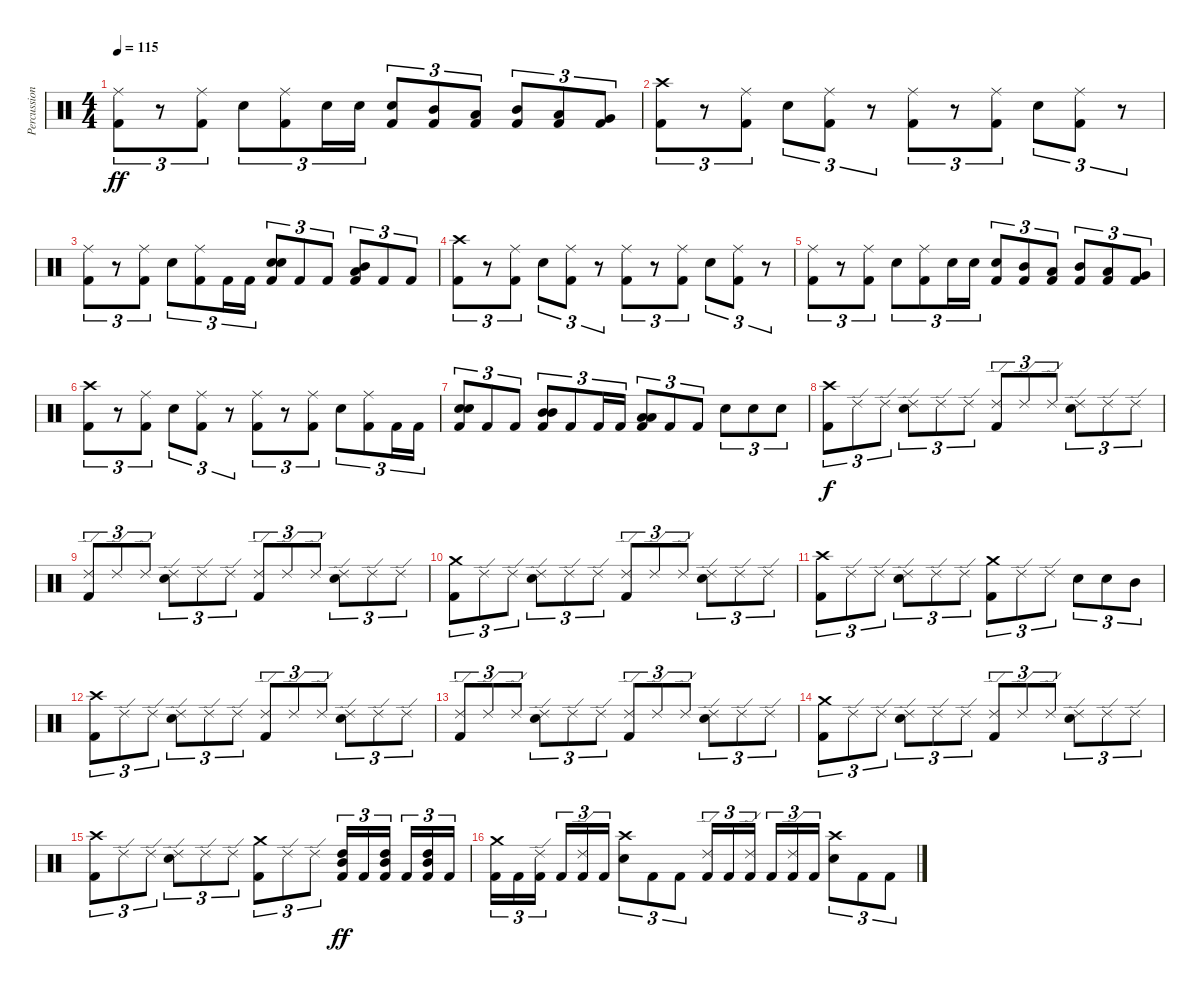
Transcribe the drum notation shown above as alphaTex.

\track ("Percussion" "Percussion") {instrument percussion}
\staff {score}
\articulation defaults
\ts (4 4)
\tempo 115
\clef neutral
\ks c
("Ride (middle)" "Kick (hit) 2").8{tu (3 2) dy ff} r.8{tu (3 2)} ("Ride (middle)" "Kick (hit) 2").8{tu (3 2)} "Snare (hit) 2".8{tu (3 2)} ("Ride (middle)" "Kick (hit) 2").8{tu (3 2)} "Snare (hit) 2".16{tu (3 2)} "Snare (hit) 2".16{tu (3 2)} ("Snare (hit) 2" "Kick (hit) 2").8{tu (3 2)} ("Mid Tom (hit)" "Kick (hit) 2").8{tu (3 2)} ("Low Tom (hit)" "Kick (hit) 2").8{tu (3 2)} ("Mid Tom (hit)" "Kick (hit) 2").8{tu (3 2)} ("Low Tom (hit)" "Kick (hit) 2").8{tu (3 2)} ("Very Low Tom (hit)" "Kick (hit) 2").8{tu (3 2)} |
("Crash high (hit)" "Kick (hit) 2").8{tu (3 2)} r.8{tu (3 2)} ("Ride (middle)" "Kick (hit) 2").8{tu (3 2)} "Snare (hit) 2".8{tu (3 2)} ("Ride (middle)" "Kick (hit) 2").8{tu (3 2)} r.8{tu (3 2)} ("Ride (middle)" "Kick (hit) 2").8{tu (3 2)} r.8{tu (3 2)} ("Ride (middle)" "Kick (hit) 2").8{tu (3 2)} "Snare (hit) 2".8{tu (3 2)} ("Ride (middle)" "Kick (hit) 2").8{tu (3 2)} r.8{tu (3 2)} |
("Ride (middle)" "Kick (hit) 2").8{tu (3 2)} r.8{tu (3 2)} ("Ride (middle)" "Kick (hit) 2").8{tu (3 2)} "Snare (hit) 2".8{tu (3 2)} ("Ride (middle)" "Kick (hit) 2").8{tu (3 2)} "Kick (hit) 2".16{tu (3 2)} "Kick (hit) 2".16{tu (3 2)} ("Snare (hit) 2" "Snare (hit) 2" "Kick (hit) 2").8{tu (3 2)} "Kick (hit) 2".8{tu (3 2)} "Kick (hit) 2".8{tu (3 2)} ("Low Tom (hit)" "Mid Tom (hit)" "Kick (hit) 2").8{tu (3 2)} "Kick (hit) 2".8{tu (3 2)} "Kick (hit) 2".8{tu (3 2)} |
("Crash high (hit)" "Kick (hit) 2").8{tu (3 2)} r.8{tu (3 2)} ("Ride (middle)" "Kick (hit) 2").8{tu (3 2)} "Snare (hit) 2".8{tu (3 2)} ("Ride (middle)" "Kick (hit) 2").8{tu (3 2)} r.8{tu (3 2)} ("Ride (middle)" "Kick (hit) 2").8{tu (3 2)} r.8{tu (3 2)} ("Ride (middle)" "Kick (hit) 2").8{tu (3 2)} "Snare (hit) 2".8{tu (3 2)} ("Ride (middle)" "Kick (hit) 2").8{tu (3 2)} r.8{tu (3 2)} |
("Ride (middle)" "Kick (hit) 2").8{tu (3 2)} r.8{tu (3 2)} ("Ride (middle)" "Kick (hit) 2").8{tu (3 2)} "Snare (hit) 2".8{tu (3 2)} ("Ride (middle)" "Kick (hit) 2").8{tu (3 2)} "Snare (hit) 2".16{tu (3 2)} "Snare (hit) 2".16{tu (3 2)} ("Snare (hit) 2" "Kick (hit) 2").8{tu (3 2)} ("Mid Tom (hit)" "Kick (hit) 2").8{tu (3 2)} ("Low Tom (hit)" "Kick (hit) 2").8{tu (3 2)} ("Mid Tom (hit)" "Kick (hit) 2").8{tu (3 2)} ("Low Tom (hit)" "Kick (hit) 2").8{tu (3 2)} ("Very Low Tom (hit)" "Kick (hit) 2").8{tu (3 2)} |
("Crash high (hit)" "Kick (hit) 2").8{tu (3 2)} r.8{tu (3 2)} ("Ride (middle)" "Kick (hit) 2").8{tu (3 2)} "Snare (hit) 2".8{tu (3 2)} ("Ride (middle)" "Kick (hit) 2").8{tu (3 2)} r.8{tu (3 2)} ("Ride (middle)" "Kick (hit) 2").8{tu (3 2)} r.8{tu (3 2)} ("Ride (middle)" "Kick (hit) 2").8{tu (3 2)} "Snare (hit) 2".8{tu (3 2)} ("Ride (middle)" "Kick (hit) 2").8{tu (3 2)} "Kick (hit) 2".16{tu (3 2)} "Kick (hit) 2".16{tu (3 2)} |
("Snare (hit) 2" "Snare (hit) 2" "Kick (hit) 2").8{tu (3 2)} "Kick (hit) 2".8{tu (3 2)} "Kick (hit) 2".8{tu (3 2)} ("Mid Tom (hit)" "Mid Tom (hit)" "Kick (hit) 2").8{tu (3 2)} "Kick (hit) 2".8{tu (3 2)} "Kick (hit) 2".16{tu (3 2)} "Kick (hit) 2".16{tu (3 2)} ("Low Tom (hit)" "Low Tom (hit)" "Kick (hit) 2").8{tu (3 2)} "Kick (hit) 2".8{tu (3 2)} "Kick (hit) 2".8{tu (3 2)} "Snare (hit) 2".8{tu (3 2)} "Snare (hit) 2".8{tu (3 2)} "Snare (hit) 2".8{tu (3 2)} |
("Crash high (hit)" "Kick (hit) 2").8{tu (3 2) dy f} "Ride (edge) 2".8{tu (3 2)} "Ride (edge) 2".8{tu (3 2)} ("Ride (edge) 2" "Snare (hit) 2").8{tu (3 2)} "Ride (edge) 2".8{tu (3 2)} "Ride (edge) 2".8{tu (3 2)} ("Ride (edge) 2" "Kick (hit) 2").8{tu (3 2)} "Ride (edge) 2".8{tu (3 2)} "Ride (edge) 2".8{tu (3 2)} ("Ride (edge) 2" "Snare (hit) 2").8{tu (3 2)} "Ride (edge) 2".8{tu (3 2)} "Ride (edge) 2".8{tu (3 2)} |
("Ride (edge) 2" "Kick (hit) 2").8{tu (3 2)} "Ride (edge) 2".8{tu (3 2)} "Ride (edge) 2".8{tu (3 2)} ("Ride (edge) 2" "Snare (hit) 2").8{tu (3 2)} "Ride (edge) 2".8{tu (3 2)} "Ride (edge) 2".8{tu (3 2)} ("Ride (edge) 2" "Kick (hit) 2").8{tu (3 2)} "Ride (edge) 2".8{tu (3 2)} "Ride (edge) 2".8{tu (3 2)} ("Ride (edge) 2" "Snare (hit) 2").8{tu (3 2)} "Ride (edge) 2".8{tu (3 2)} "Ride (edge) 2".8{tu (3 2)} |
("Crash medium (hit)" "Kick (hit) 2").8{tu (3 2)} "Ride (edge) 2".8{tu (3 2)} "Ride (edge) 2".8{tu (3 2)} ("Ride (edge) 2" "Snare (hit) 2").8{tu (3 2)} "Ride (edge) 2".8{tu (3 2)} "Ride (edge) 2".8{tu (3 2)} ("Ride (edge) 2" "Kick (hit) 2").8{tu (3 2)} "Ride (edge) 2".8{tu (3 2)} "Ride (edge) 2".8{tu (3 2)} ("Ride (edge) 2" "Snare (hit) 2").8{tu (3 2)} "Ride (edge) 2".8{tu (3 2)} "Ride (edge) 2".8{tu (3 2)} |
("Crash high (hit)" "Kick (hit) 2").8{tu (3 2)} "Ride (edge) 2".8{tu (3 2)} "Ride (edge) 2".8{tu (3 2)} ("Ride (edge) 2" "Snare (hit) 2").8{tu (3 2)} "Ride (edge) 2".8{tu (3 2)} "Ride (edge) 2".8{tu (3 2)} ("Crash medium (hit)" "Kick (hit) 2").8{tu (3 2)} "Ride (edge) 2".8{tu (3 2)} "Ride (edge) 2".8{tu (3 2)} "Snare (hit) 2".8{tu (3 2)} "Snare (hit) 2".8{tu (3 2)} "Mid Tom (hit)".8{tu (3 2)} |
("Crash high (hit)" "Kick (hit) 2").8{tu (3 2)} "Ride (edge) 2".8{tu (3 2)} "Ride (edge) 2".8{tu (3 2)} ("Ride (edge) 2" "Snare (hit) 2").8{tu (3 2)} "Ride (edge) 2".8{tu (3 2)} "Ride (edge) 2".8{tu (3 2)} ("Ride (edge) 2" "Kick (hit) 2").8{tu (3 2)} "Ride (edge) 2".8{tu (3 2)} "Ride (edge) 2".8{tu (3 2)} ("Ride (edge) 2" "Snare (hit) 2").8{tu (3 2)} "Ride (edge) 2".8{tu (3 2)} "Ride (edge) 2".8{tu (3 2)} |
("Ride (edge) 2" "Kick (hit) 2").8{tu (3 2)} "Ride (edge) 2".8{tu (3 2)} "Ride (edge) 2".8{tu (3 2)} ("Ride (edge) 2" "Snare (hit) 2").8{tu (3 2)} "Ride (edge) 2".8{tu (3 2)} "Ride (edge) 2".8{tu (3 2)} ("Ride (edge) 2" "Kick (hit) 2").8{tu (3 2)} "Ride (edge) 2".8{tu (3 2)} "Ride (edge) 2".8{tu (3 2)} ("Ride (edge) 2" "Snare (hit) 2").8{tu (3 2)} "Ride (edge) 2".8{tu (3 2)} "Ride (edge) 2".8{tu (3 2)} |
("Crash medium (hit)" "Kick (hit) 2").8{tu (3 2)} "Ride (edge) 2".8{tu (3 2)} "Ride (edge) 2".8{tu (3 2)} ("Ride (edge) 2" "Snare (hit) 2").8{tu (3 2)} "Ride (edge) 2".8{tu (3 2)} "Ride (edge) 2".8{tu (3 2)} ("Ride (edge) 2" "Kick (hit) 2").8{tu (3 2)} "Ride (edge) 2".8{tu (3 2)} "Ride (edge) 2".8{tu (3 2)} ("Ride (edge) 2" "Snare (hit) 2").8{tu (3 2)} "Ride (edge) 2".8{tu (3 2)} "Ride (edge) 2".8{tu (3 2)} |
("Crash high (hit)" "Kick (hit) 2").8{tu (3 2)} "Ride (edge) 2".8{tu (3 2)} "Ride (edge) 2".8{tu (3 2)} ("Ride (edge) 2" "Snare (hit) 2").8{tu (3 2)} "Ride (edge) 2".8{tu (3 2)} "Ride (edge) 2".8{tu (3 2)} ("Crash medium (hit)" "Kick (hit) 2").8{tu (3 2)} "Ride (edge) 2".8{tu (3 2)} "Ride (edge) 2".8{tu (3 2)} ("High Tom (hit)" "Mid Tom (hit)" "Kick (hit) 2").16{tu (3 2) dy ff} "Kick (hit) 2".16{tu (3 2)} ("High Tom (hit)" "Mid Tom (hit)" "Kick (hit) 2").16{tu (3 2) beam splitsecondary} "Kick (hit) 2".16{tu (3 2)} ("High Tom (hit)" "Mid Tom (hit)" "Kick (hit) 2").16{tu (3 2)} "Kick (hit) 2".16{tu (3 2)} |
("Crash medium (hit)" "Kick (hit) 2").16{tu (3 2)} "Kick (hit) 2".16{tu (3 2)} ("Ride (edge) 2" "Kick (hit) 2").16{tu (3 2) beam splitsecondary} "Kick (hit) 2".16{tu (3 2)} ("Ride (edge) 2" "Kick (hit) 2").16{tu (3 2)} "Kick (hit) 2".16{tu (3 2)} ("Snare (hit) 2" "Crash high (hit)").8{tu (3 2)} "Kick (hit) 2".8{tu (3 2)} "Kick (hit) 2".8{tu (3 2)} ("Ride (edge) 2" "Kick (hit) 2").16{tu (3 2)} "Kick (hit) 2".16{tu (3 2)} ("Ride (edge) 2" "Kick (hit) 2").16{tu (3 2) beam splitsecondary} "Kick (hit) 2".16{tu (3 2)} ("Ride (edge) 2" "Kick (hit) 2").16{tu (3 2)} "Kick (hit) 2".16{tu (3 2)} ("Crash high (hit)" "Snare (hit) 2").8{tu (3 2)} "Kick (hit) 2".8{tu (3 2)} "Kick (hit) 2".8{tu (3 2)}
